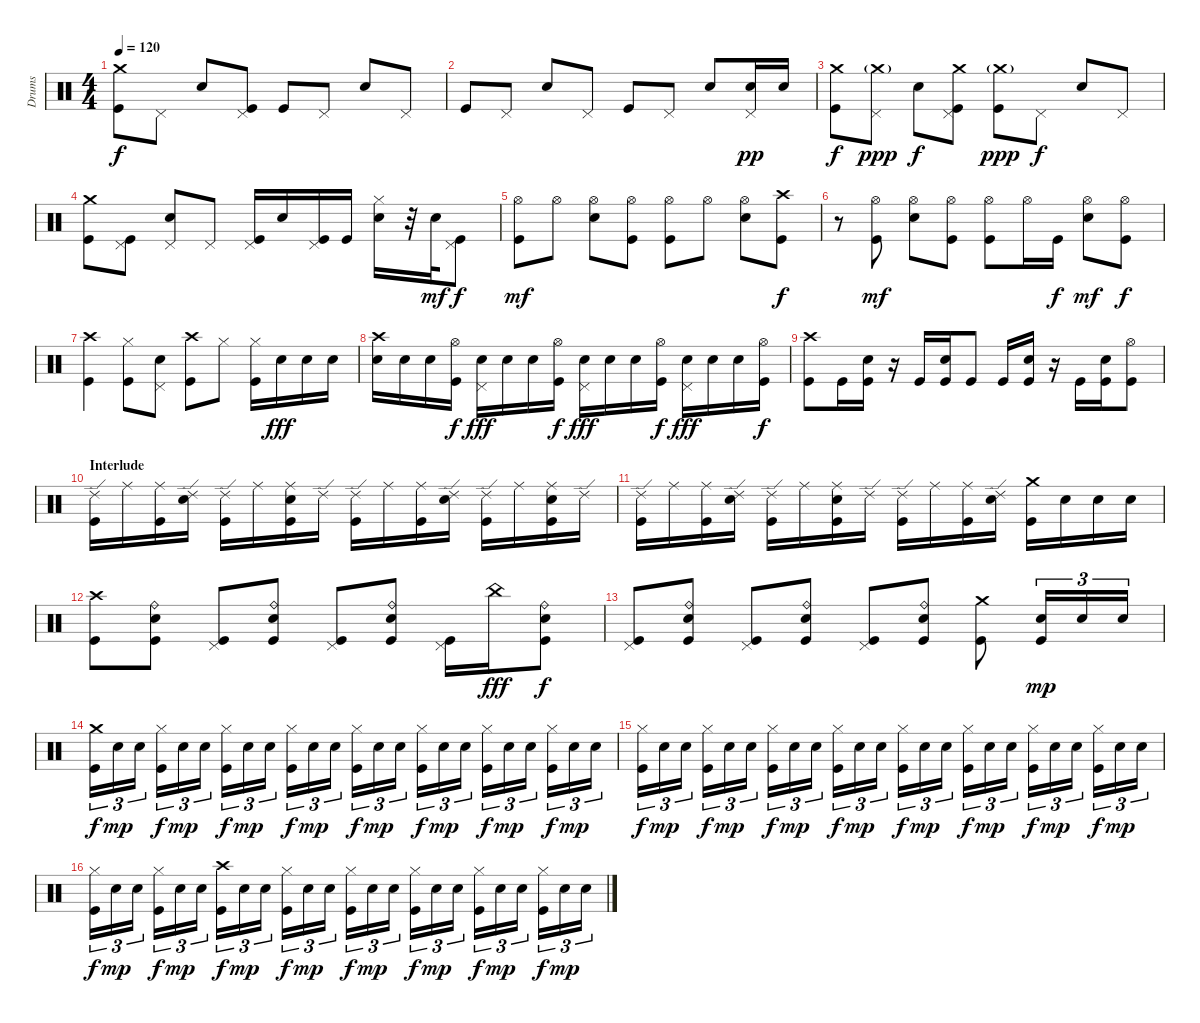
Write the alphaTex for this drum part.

\track ("Drums" "Drums") {instrument percussion}
\staff {score}
\articulation defaults
\ts (4 4)
\tempo 120
\clef neutral
\ks c
("Crash medium (hit)" "Kick (hit)").8{dy f} "Pedal Hi-Hat (hit)".8 "Electric Snare (hit)".8 ("Pedal Hi-Hat (hit)" "Kick (hit)").8 "Kick (hit)".8 "Pedal Hi-Hat (hit)".8 "Electric Snare (hit)".8 "Pedal Hi-Hat (hit)".8 |
"Kick (hit)".8 "Pedal Hi-Hat (hit)".8 "Electric Snare (hit)".8 "Pedal Hi-Hat (hit)".8 "Kick (hit)".8 "Pedal Hi-Hat (hit)".8 "Electric Snare (hit)".8 ("Pedal Hi-Hat (hit)" "Electric Snare (hit)").16{dy pp} "Electric Snare (hit)".16 |
("Crash medium (hit)" "Kick (hit)").8{dy f} ("Crash medium (hit)"{g} "Pedal Hi-Hat (hit)").8{dy ppp} "Electric Snare (hit)".8{dy f} ("Crash medium (hit)" "Pedal Hi-Hat (hit)" "Kick (hit)").8 ("Crash medium (hit)"{g} "Kick (hit)").8{dy ppp} "Pedal Hi-Hat (hit)".8{dy f} "Electric Snare (hit)".8 "Pedal Hi-Hat (hit)".8 |
("Crash medium (hit)" "Kick (hit)").8 ("Pedal Hi-Hat (hit)" "Kick (hit)").8 ("Pedal Hi-Hat (hit)" "Electric Snare (hit)").8 "Pedal Hi-Hat (hit)".8 ("Pedal Hi-Hat (hit)" "Kick (hit)").16 "Electric Snare (hit)".16 ("Pedal Hi-Hat (hit)" "Kick (hit)").16 "Kick (hit)".16 ("Hi-Hat (closed)" "Electric Snare (hit)").16 r.32 "Electric Snare (hit)".32{dy mf} ("Pedal Hi-Hat (hit)" "Kick (hit)").8{dy f} |
("Hi-Hat (open)" "Kick (hit)").8{dy mf} "Hi-Hat (open)".8 ("Hi-Hat (open)" "Electric Snare (hit)").8 ("Hi-Hat (open)" "Kick (hit)").8 ("Hi-Hat (open)" "Kick (hit)").8 "Hi-Hat (open)".8 ("Hi-Hat (open)" "Electric Snare (hit)").8 ("Crash high (hit)" "Kick (hit)").8{dy f} |
r.8 ("Hi-Hat (open)" "Kick (hit)").8{dy mf} ("Hi-Hat (open)" "Electric Snare (hit)").8 ("Hi-Hat (open)" "Kick (hit)").8 ("Hi-Hat (open)" "Kick (hit)").8 "Hi-Hat (open)".16 "Kick (hit)".16{dy f} ("Hi-Hat (open)" "Electric Snare (hit)").8{dy mf} ("Hi-Hat (open)" "Kick (hit)").8{dy f} |
("Crash high (hit)" "Kick (hit)").4 ("Hi-Hat (closed)" "Kick (hit)").8 ("Pedal Hi-Hat (hit)" "Electric Snare (hit)").8 ("Crash high (hit)" "Kick (hit)").8 "Hi-Hat (closed)".8 ("Hi-Hat (closed)" "Kick (hit)").16 "Electric Snare (hit)".16{dy fff} "Electric Snare (hit)".16 "Electric Snare (hit)".16 |
("Crash high (hit)" "Electric Snare (hit)").16 "Electric Snare (hit)".16 "Electric Snare (hit)".16 ("Hi-Hat (open)" "Kick (hit)").16{dy f} ("Pedal Hi-Hat (hit)" "Electric Snare (hit)").16{dy fff} "Electric Snare (hit)".16 "Electric Snare (hit)".16 ("Hi-Hat (open)" "Kick (hit)").16{dy f} ("Pedal Hi-Hat (hit)" "Electric Snare (hit)").16{dy fff} "Electric Snare (hit)".16 "Electric Snare (hit)".16 ("Hi-Hat (open)" "Kick (hit)").16{dy f} ("Pedal Hi-Hat (hit)" "Electric Snare (hit)").16{dy fff} "Electric Snare (hit)".16 "Electric Snare (hit)".16 ("Hi-Hat (open)" "Kick (hit)").16{dy f} |
("Crash high (hit)" "Kick (hit)").8 "Kick (hit)".16 ("Electric Snare (hit)" "Kick (hit)").16 r.16 "Kick (hit)".16 ("Electric Snare (hit)" "Kick (hit)").16 "Kick (hit)".8 "Kick (hit)".16 ("Electric Snare (hit)" "Kick (hit)").16 r.16 "Kick (hit)".16 ("Electric Snare (hit)" "Kick (hit)").16 ("Hi-Hat (open)" "Kick (hit)").8 |
\section ("" "Interlude")
("Ride (edge) 2" "Kick (hit)").16 "Ride (middle)".16 ("Ride (middle)" "Kick (hit)").16 ("Ride (edge) 2" "Electric Snare (hit)").16 ("Ride (edge) 2" "Kick (hit)").16 "Ride (middle)".16 ("Ride (middle)" "Electric Snare (hit)" "Kick (hit)").16 "Ride (edge) 2".16 ("Ride (edge) 2" "Kick (hit)").16 "Ride (middle)".16 ("Ride (middle)" "Kick (hit)").16 ("Ride (edge) 2" "Electric Snare (hit)").16 ("Ride (edge) 2" "Kick (hit)").16 "Ride (middle)".16 ("Ride (middle)" "Electric Snare (hit)" "Kick (hit)").16 "Ride (edge) 2".16 |
("Ride (edge) 2" "Kick (hit)").16 "Ride (middle)".16 ("Ride (middle)" "Kick (hit)").16 ("Ride (edge) 2" "Electric Snare (hit)").16 ("Ride (edge) 2" "Kick (hit)").16 "Ride (middle)".16 ("Ride (middle)" "Electric Snare (hit)" "Kick (hit)").16 "Ride (edge) 2".16 ("Ride (edge) 2" "Kick (hit)").16 "Ride (middle)".16 ("Ride (middle)" "Kick (hit)").16 ("Ride (edge) 2" "Electric Snare (hit)").16 ("Crash medium (hit)" "Kick (hit)").16 "Electric Snare (hit)".16 "Electric Snare (hit)".16 "Electric Snare (hit)".16 |
("Crash high (hit)" "Kick (hit)").8 ("Ride (bell)" "Electric Snare (hit)" "Kick (hit)").8 ("Pedal Hi-Hat (hit)" "Kick (hit)").8 ("Ride (bell)" "Electric Snare (hit)" "Kick (hit)").8 ("Pedal Hi-Hat (hit)" "Kick (hit)").8 ("Ride (bell)" "Electric Snare (hit)" "Kick (hit)").8 ("Pedal Hi-Hat (hit)" "Kick (hit)").16 "China (hit)".16{dy fff} ("Ride (bell)" "Electric Snare (hit)" "Kick (hit)").8{dy f} |
("Pedal Hi-Hat (hit)" "Kick (hit)").8 ("Ride (bell)" "Electric Snare (hit)" "Kick (hit)").8 ("Pedal Hi-Hat (hit)" "Kick (hit)").8 ("Ride (bell)" "Electric Snare (hit)" "Kick (hit)").8 ("Pedal Hi-Hat (hit)" "Kick (hit)").8 ("Ride (bell)" "Electric Snare (hit)" "Kick (hit)").8 ("Crash medium (hit)" "Kick (hit)").8 ("Electric Snare (hit)" "Kick (hit)").16{tu (3 2) dy mp} "Electric Snare (hit)".16{tu (3 2)} "Electric Snare (hit)".16{tu (3 2)} |
("Crash medium (hit)" "Kick (hit)").16{tu (3 2) dy f} "Electric Snare (hit)".16{tu (3 2) dy mp} "Electric Snare (hit)".16{tu (3 2)} ("Hi-Hat (closed)" "Kick (hit)").16{tu (3 2) dy f} "Electric Snare (hit)".16{tu (3 2) dy mp} "Electric Snare (hit)".16{tu (3 2)} ("Hi-Hat (closed)" "Kick (hit)").16{tu (3 2) dy f} "Electric Snare (hit)".16{tu (3 2) dy mp} "Electric Snare (hit)".16{tu (3 2)} ("Hi-Hat (closed)" "Kick (hit)").16{tu (3 2) dy f} "Electric Snare (hit)".16{tu (3 2) dy mp} "Electric Snare (hit)".16{tu (3 2)} ("Hi-Hat (closed)" "Kick (hit)").16{tu (3 2) dy f} "Electric Snare (hit)".16{tu (3 2) dy mp} "Electric Snare (hit)".16{tu (3 2)} ("Hi-Hat (closed)" "Kick (hit)").16{tu (3 2) dy f} "Electric Snare (hit)".16{tu (3 2) dy mp} "Electric Snare (hit)".16{tu (3 2)} ("Hi-Hat (closed)" "Kick (hit)").16{tu (3 2) dy f} "Electric Snare (hit)".16{tu (3 2) dy mp} "Electric Snare (hit)".16{tu (3 2)} ("Hi-Hat (closed)" "Kick (hit)").16{tu (3 2) dy f} "Electric Snare (hit)".16{tu (3 2) dy mp} "Electric Snare (hit)".16{tu (3 2)} |
("Hi-Hat (closed)" "Kick (hit)").16{tu (3 2) dy f} "Electric Snare (hit)".16{tu (3 2) dy mp} "Electric Snare (hit)".16{tu (3 2)} ("Hi-Hat (closed)" "Kick (hit)").16{tu (3 2) dy f} "Electric Snare (hit)".16{tu (3 2) dy mp} "Electric Snare (hit)".16{tu (3 2)} ("Hi-Hat (closed)" "Kick (hit)").16{tu (3 2) dy f} "Electric Snare (hit)".16{tu (3 2) dy mp} "Electric Snare (hit)".16{tu (3 2)} ("Hi-Hat (closed)" "Kick (hit)").16{tu (3 2) dy f} "Electric Snare (hit)".16{tu (3 2) dy mp} "Electric Snare (hit)".16{tu (3 2)} ("Hi-Hat (closed)" "Kick (hit)").16{tu (3 2) dy f} "Electric Snare (hit)".16{tu (3 2) dy mp} "Electric Snare (hit)".16{tu (3 2)} ("Hi-Hat (closed)" "Kick (hit)").16{tu (3 2) dy f} "Electric Snare (hit)".16{tu (3 2) dy mp} "Electric Snare (hit)".16{tu (3 2)} ("Hi-Hat (closed)" "Kick (hit)").16{tu (3 2) dy f} "Electric Snare (hit)".16{tu (3 2) dy mp} "Electric Snare (hit)".16{tu (3 2)} ("Hi-Hat (closed)" "Kick (hit)").16{tu (3 2) dy f} "Electric Snare (hit)".16{tu (3 2) dy mp} "Electric Snare (hit)".16{tu (3 2)} |
("Hi-Hat (closed)" "Kick (hit)").16{tu (3 2) dy f} "Electric Snare (hit)".16{tu (3 2) dy mp} "Electric Snare (hit)".16{tu (3 2)} ("Hi-Hat (closed)" "Kick (hit)").16{tu (3 2) dy f} "Electric Snare (hit)".16{tu (3 2) dy mp} "Electric Snare (hit)".16{tu (3 2)} ("Crash high (hit)" "Kick (hit)").16{tu (3 2) dy f} "Electric Snare (hit)".16{tu (3 2) dy mp} "Electric Snare (hit)".16{tu (3 2)} ("Hi-Hat (closed)" "Kick (hit)").16{tu (3 2) dy f} "Electric Snare (hit)".16{tu (3 2) dy mp} "Electric Snare (hit)".16{tu (3 2)} ("Hi-Hat (closed)" "Kick (hit)").16{tu (3 2) dy f} "Electric Snare (hit)".16{tu (3 2) dy mp} "Electric Snare (hit)".16{tu (3 2)} ("Hi-Hat (closed)" "Kick (hit)").16{tu (3 2) dy f} "Electric Snare (hit)".16{tu (3 2) dy mp} "Electric Snare (hit)".16{tu (3 2)} ("Hi-Hat (closed)" "Kick (hit)").16{tu (3 2) dy f} "Electric Snare (hit)".16{tu (3 2) dy mp} "Electric Snare (hit)".16{tu (3 2)} ("Hi-Hat (closed)" "Kick (hit)").16{tu (3 2) dy f} "Electric Snare (hit)".16{tu (3 2) dy mp} "Electric Snare (hit)".16{tu (3 2)}
